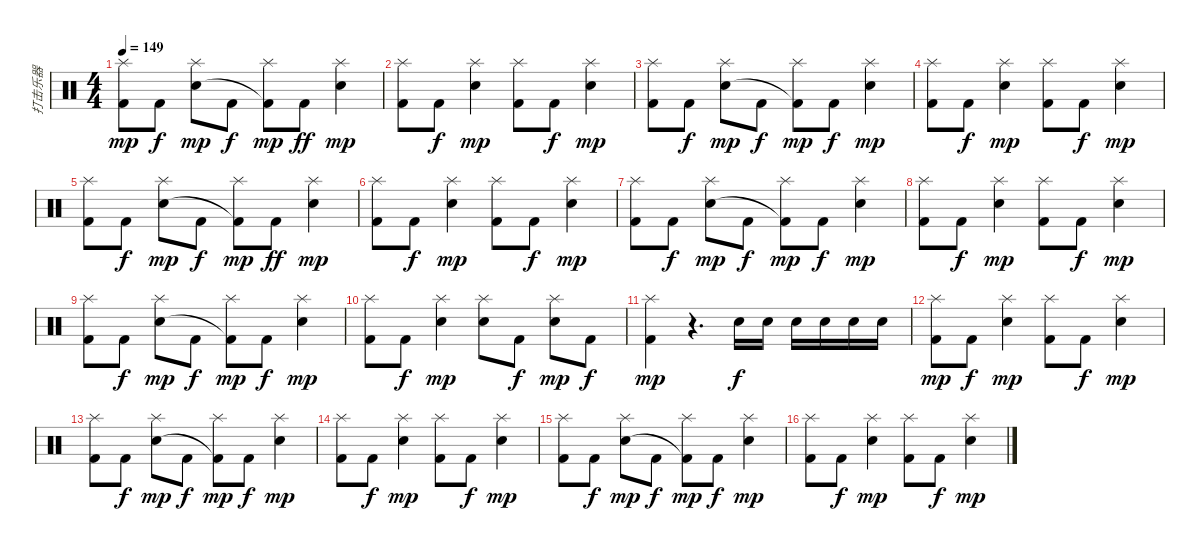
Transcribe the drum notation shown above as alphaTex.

\track ("打击乐器" "打击乐器") {instrument percussion}
\staff {score}
\articulation defaults
\ts (4 4)
\tempo 149
\clef neutral
\ks c
("Splash (hit)" "Kick (hit) 2").8{dy mp} "Kick (hit) 2".8{dy f} ("Splash (hit)" "Electric Snare (hit)").8{dy mp} "Kick (hit) 2".8{dy f} ("Splash (hit)" "Kick (hit) 2"{t}).8{dy mp} "Kick (hit) 2".8{dy ff} ("Splash (hit)" "Electric Snare (hit)").4{dy mp} |
("Splash (hit)" "Kick (hit) 2").8 "Kick (hit) 2".8{dy f} ("Splash (hit)" "Electric Snare (hit)").4{dy mp} ("Splash (hit)" "Kick (hit) 2").8 "Kick (hit) 2".8{dy f} ("Splash (hit)" "Electric Snare (hit)").4{dy mp} |
("Splash (hit)" "Kick (hit) 2").8 "Kick (hit) 2".8{dy f} ("Splash (hit)" "Electric Snare (hit)").8{dy mp} "Kick (hit) 2".8{dy f} ("Splash (hit)" "Kick (hit) 2"{t}).8{dy mp} "Kick (hit) 2".8{dy f} ("Splash (hit)" "Electric Snare (hit)").4{dy mp} |
("Splash (hit)" "Kick (hit) 2").8 "Kick (hit) 2".8{dy f} ("Splash (hit)" "Electric Snare (hit)").4{dy mp} ("Splash (hit)" "Kick (hit) 2").8 "Kick (hit) 2".8{dy f} ("Splash (hit)" "Electric Snare (hit)").4{dy mp} |
("Splash (hit)" "Kick (hit) 2").8 "Kick (hit) 2".8{dy f} ("Splash (hit)" "Electric Snare (hit)").8{dy mp} "Kick (hit) 2".8{dy f} ("Splash (hit)" "Kick (hit) 2"{t}).8{dy mp} "Kick (hit) 2".8{dy ff} ("Splash (hit)" "Electric Snare (hit)").4{dy mp} |
("Splash (hit)" "Kick (hit) 2").8 "Kick (hit) 2".8{dy f} ("Splash (hit)" "Electric Snare (hit)").4{dy mp} ("Splash (hit)" "Kick (hit) 2").8 "Kick (hit) 2".8{dy f} ("Splash (hit)" "Electric Snare (hit)").4{dy mp} |
("Splash (hit)" "Kick (hit) 2").8 "Kick (hit) 2".8{dy f} ("Splash (hit)" "Electric Snare (hit)").8{dy mp} "Kick (hit) 2".8{dy f} ("Splash (hit)" "Kick (hit) 2"{t}).8{dy mp} "Kick (hit) 2".8{dy f} ("Splash (hit)" "Electric Snare (hit)").4{dy mp} |
("Splash (hit)" "Kick (hit) 2").8 "Kick (hit) 2".8{dy f} ("Splash (hit)" "Electric Snare (hit)").4{dy mp} ("Splash (hit)" "Kick (hit) 2").8 "Kick (hit) 2".8{dy f} ("Splash (hit)" "Electric Snare (hit)").4{dy mp} |
("Splash (hit)" "Kick (hit) 2").8 "Kick (hit) 2".8{dy f} ("Splash (hit)" "Electric Snare (hit)").8{dy mp} "Kick (hit) 2".8{dy f} ("Splash (hit)" "Kick (hit) 2"{t}).8{dy mp} "Kick (hit) 2".8{dy f} ("Splash (hit)" "Electric Snare (hit)").4{dy mp} |
("Splash (hit)" "Kick (hit) 2").8 "Kick (hit) 2".8{dy f} ("Splash (hit)" "Electric Snare (hit)").4{dy mp} ("Splash (hit)" "Electric Snare (hit)").8 "Kick (hit) 2".8{dy f} ("Splash (hit)" "Electric Snare (hit)").8{dy mp} "Kick (hit) 2".8{dy f} |
("Splash (hit)" "Kick (hit) 2").4{dy mp} r.4{d} "Electric Snare (hit)".16{dy f} "Electric Snare (hit)".16 "Electric Snare (hit)".16 "Electric Snare (hit)".16 "Electric Snare (hit)".16 "Electric Snare (hit)".16 |
("Splash (hit)" "Kick (hit) 2").8{dy mp} "Kick (hit) 2".8{dy f} ("Splash (hit)" "Electric Snare (hit)").4{dy mp} ("Splash (hit)" "Kick (hit) 2").8 "Kick (hit) 2".8{dy f} ("Splash (hit)" "Electric Snare (hit)").4{dy mp} |
("Splash (hit)" "Kick (hit) 2").8 "Kick (hit) 2".8{dy f} ("Splash (hit)" "Electric Snare (hit)").8{dy mp} "Kick (hit) 2".8{dy f} ("Splash (hit)" "Kick (hit) 2"{t}).8{dy mp} "Kick (hit) 2".8{dy f} ("Splash (hit)" "Electric Snare (hit)").4{dy mp} |
("Splash (hit)" "Kick (hit) 2").8 "Kick (hit) 2".8{dy f} ("Splash (hit)" "Electric Snare (hit)").4{dy mp} ("Splash (hit)" "Kick (hit) 2").8 "Kick (hit) 2".8{dy f} ("Splash (hit)" "Electric Snare (hit)").4{dy mp} |
("Splash (hit)" "Kick (hit) 2").8 "Kick (hit) 2".8{dy f} ("Splash (hit)" "Electric Snare (hit)").8{dy mp} "Kick (hit) 2".8{dy f} ("Splash (hit)" "Kick (hit) 2"{t}).8{dy mp} "Kick (hit) 2".8{dy f} ("Splash (hit)" "Electric Snare (hit)").4{dy mp} |
("Splash (hit)" "Kick (hit) 2").8 "Kick (hit) 2".8{dy f} ("Splash (hit)" "Electric Snare (hit)").4{dy mp} ("Splash (hit)" "Kick (hit) 2").8 "Kick (hit) 2".8{dy f} ("Splash (hit)" "Electric Snare (hit)").4{dy mp}
